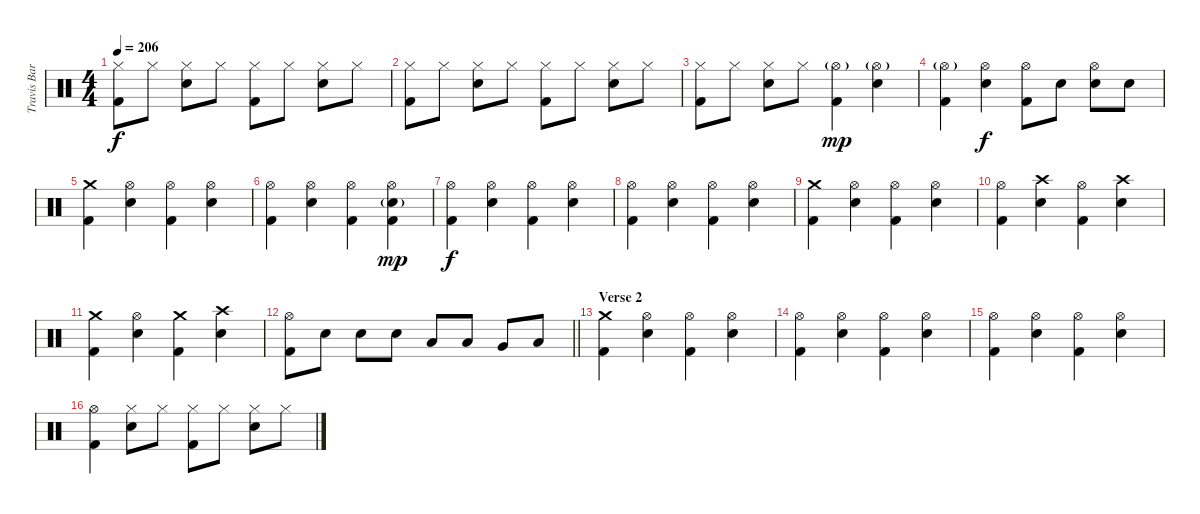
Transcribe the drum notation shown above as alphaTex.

\track ("Travis Barker - Drums" "Travis Bar") {instrument percussion}
\staff {score}
\articulation defaults
\ts (4 4)
\tempo 206
\clef neutral
\ks c
("Hi-Hat (closed)" "Kick (hit) 2").8{dy f} "Hi-Hat (closed)".8 ("Hi-Hat (closed)" "Electric Snare (hit)").8 "Hi-Hat (closed)".8 ("Hi-Hat (closed)" "Kick (hit) 2").8 "Hi-Hat (closed)".8 ("Hi-Hat (closed)" "Electric Snare (hit)").8 "Hi-Hat (closed)".8 |
("Hi-Hat (closed)" "Kick (hit) 2").8 "Hi-Hat (closed)".8 ("Hi-Hat (closed)" "Electric Snare (hit)").8 "Hi-Hat (closed)".8 ("Hi-Hat (closed)" "Kick (hit) 2").8 "Hi-Hat (closed)".8 ("Hi-Hat (closed)" "Electric Snare (hit)").8 "Hi-Hat (closed)".8 |
("Hi-Hat (closed)" "Kick (hit) 2").8 "Hi-Hat (closed)".8 ("Hi-Hat (closed)" "Electric Snare (hit)").8 "Hi-Hat (closed)".8 ("Hi-Hat (open)"{g} "Kick (hit) 2").4{dy mp} ("Hi-Hat (open)"{g} "Electric Snare (hit)").4 |
("Hi-Hat (open)"{g} "Kick (hit) 2").4 ("Hi-Hat (open)" "Electric Snare (hit)").4{dy f} ("Hi-Hat (open)" "Kick (hit) 2").8 "Electric Snare (hit)".8 ("Hi-Hat (open)" "Electric Snare (hit)").8 "Electric Snare (hit)".8 |
("Crash medium (hit)" "Kick (hit) 2").4 ("Hi-Hat (open)" "Electric Snare (hit)").4 ("Hi-Hat (open)" "Kick (hit) 2").4 ("Hi-Hat (open)" "Electric Snare (hit)").4 |
("Hi-Hat (open)" "Kick (hit) 2").4 ("Hi-Hat (open)" "Electric Snare (hit)").4 ("Hi-Hat (open)" "Kick (hit) 2").4 ("Hi-Hat (open)" "Electric Snare (hit)"{g} "Kick (hit) 2").4{dy mp} |
("Hi-Hat (open)" "Kick (hit) 2").4{dy f} ("Hi-Hat (open)" "Electric Snare (hit)").4 ("Hi-Hat (open)" "Kick (hit) 2").4 ("Hi-Hat (open)" "Electric Snare (hit)").4 |
("Hi-Hat (open)" "Kick (hit) 2").4 ("Hi-Hat (open)" "Electric Snare (hit)").4 ("Hi-Hat (open)" "Kick (hit) 2").4 ("Hi-Hat (open)" "Electric Snare (hit)").4 |
("Crash medium (hit)" "Kick (hit) 2").4 ("Hi-Hat (open)" "Electric Snare (hit)").4 ("Hi-Hat (open)" "Kick (hit) 2").4 ("Hi-Hat (open)" "Electric Snare (hit)").4 |
("Hi-Hat (open)" "Kick (hit) 2").4 ("Crash high (hit)" "Electric Snare (hit)").4 ("Hi-Hat (open)" "Kick (hit) 2").4 ("Crash high (hit)" "Electric Snare (hit)").4 |
("Crash medium (hit)" "Kick (hit) 2").4 ("Hi-Hat (open)" "Electric Snare (hit)").4 ("Crash medium (hit)" "Kick (hit) 2").4 ("Crash high (hit)" "Electric Snare (hit)").4 |
\barLineRight lightlight
("Hi-Hat (open)" "Kick (hit) 2").8 "Electric Snare (hit)".8 "Electric Snare (hit)".8 "Electric Snare (hit)".8 "Low Tom (hit)".8 "Low Tom (hit)".8 "Very Low Tom (hit)".8 "Low Floor Tom (hit)".8 |
\section ("" "Verse 2")
("Crash medium (hit)" "Kick (hit) 2").4 ("Hi-Hat (open)" "Electric Snare (hit)").4 ("Hi-Hat (open)" "Kick (hit) 2").4 ("Hi-Hat (open)" "Electric Snare (hit)").4 |
("Hi-Hat (open)" "Kick (hit) 2").4 ("Hi-Hat (open)" "Electric Snare (hit)").4 ("Hi-Hat (open)" "Kick (hit) 2").4 ("Hi-Hat (open)" "Electric Snare (hit)").4 |
("Hi-Hat (open)" "Kick (hit) 2").4 ("Hi-Hat (open)" "Electric Snare (hit)").4 ("Hi-Hat (open)" "Kick (hit) 2").4 ("Hi-Hat (open)" "Electric Snare (hit)").4 |
("Hi-Hat (open)" "Kick (hit) 2").4 ("Hi-Hat (closed)" "Electric Snare (hit)").8 "Hi-Hat (closed)".8 ("Hi-Hat (closed)" "Kick (hit) 2").8 "Hi-Hat (closed)".8 ("Hi-Hat (closed)" "Electric Snare (hit)").8 "Hi-Hat (closed)".8
